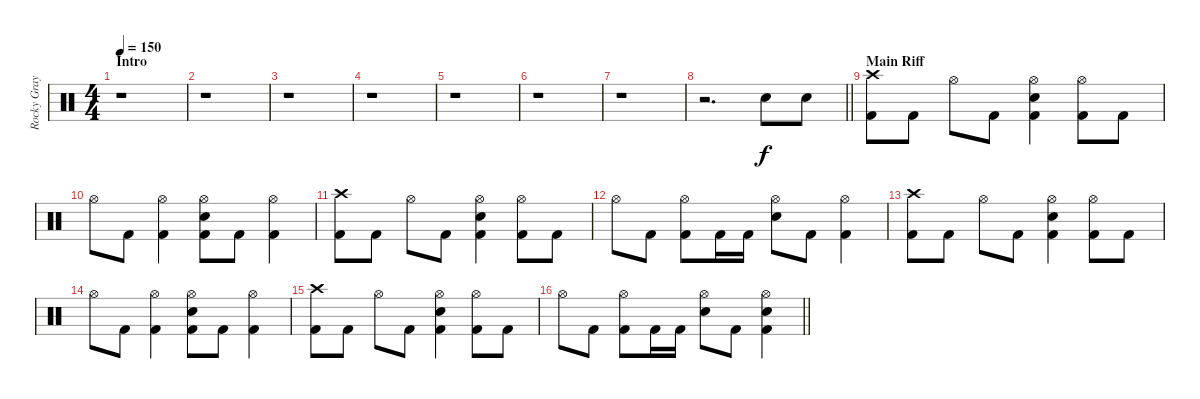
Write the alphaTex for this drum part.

\track ("Rocky Gray" "Rocky Gray") {instrument percussion}
\staff {score}
\articulation defaults
\ts (4 4)
\section ("" "Intro")
\tempo 150
\clef neutral
\ks c
r.1{dy f} |
r.1 |
r.1 |
r.1 |
r.1 |
r.1 |
r.1 |
\barLineRight lightlight
r.2{d} "Snare (hit) 2".8 "Snare (hit) 2".8 |
\section ("" "Main Riff")
("Crash high (hit)" "Kick (hit) 2").8 "Kick (hit) 2".8 "Hi-Hat (open)".8 "Kick (hit) 2".8 ("Hi-Hat (open)" "Snare (hit) 2" "Kick (hit) 2").4 ("Hi-Hat (open)" "Kick (hit) 2").8 "Kick (hit) 2".8 |
"Hi-Hat (open)".8 "Kick (hit) 2".8 ("Hi-Hat (open)" "Kick (hit) 2").4 ("Hi-Hat (open)" "Snare (hit) 2" "Kick (hit) 2").8 "Kick (hit) 2".8 ("Hi-Hat (open)" "Kick (hit) 2").4 |
("Crash high (hit)" "Kick (hit) 2").8 "Kick (hit) 2".8 "Hi-Hat (open)".8 "Kick (hit) 2".8 ("Hi-Hat (open)" "Snare (hit) 2" "Kick (hit) 2").4 ("Hi-Hat (open)" "Kick (hit) 2").8 "Kick (hit) 2".8 |
"Hi-Hat (open)".8 "Kick (hit) 2".8 ("Hi-Hat (open)" "Kick (hit) 2").8 "Kick (hit) 2".16 "Kick (hit) 2".16 ("Hi-Hat (open)" "Snare (hit) 2").8 "Kick (hit) 2".8 ("Hi-Hat (open)" "Kick (hit) 2").4 |
("Crash high (hit)" "Kick (hit) 2").8 "Kick (hit) 2".8 "Hi-Hat (open)".8 "Kick (hit) 2".8 ("Hi-Hat (open)" "Snare (hit) 2" "Kick (hit) 2").4 ("Hi-Hat (open)" "Kick (hit) 2").8 "Kick (hit) 2".8 |
"Hi-Hat (open)".8 "Kick (hit) 2".8 ("Hi-Hat (open)" "Kick (hit) 2").4 ("Hi-Hat (open)" "Snare (hit) 2" "Kick (hit) 2").8 "Kick (hit) 2".8 ("Hi-Hat (open)" "Kick (hit) 2").4 |
("Crash high (hit)" "Kick (hit) 2").8 "Kick (hit) 2".8 "Hi-Hat (open)".8 "Kick (hit) 2".8 ("Hi-Hat (open)" "Snare (hit) 2" "Kick (hit) 2").4 ("Hi-Hat (open)" "Kick (hit) 2").8 "Kick (hit) 2".8 |
\barLineRight lightlight "Hi-Hat (open)".8 "Kick (hit) 2".8
("Hi-Hat (open)" "Kick (hit) 2").8 "Kick (hit) 2".16 "Kick (hit) 2".16 ("Hi-Hat (open)" "Snare (hit) 2").8 "Kick (hit) 2".8 ("Hi-Hat (open)" "Snare (hit) 2" "Kick (hit) 2").4
